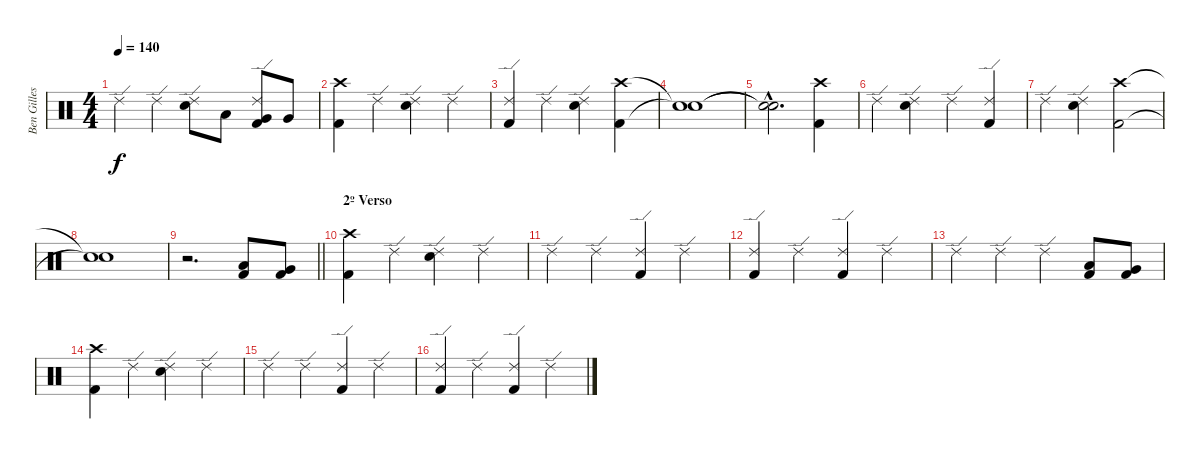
\track ("Ben Gilles" "Ben Gilles") {instrument percussion}
\staff {score}
\articulation defaults
\ts (4 4)
\tempo 140
\clef neutral
\ks c "Ride (edge) 2".4{dy f} "Ride (edge) 2".4
("Ride (edge) 2" "Electric Snare (hit)").8 "Low Tom (hit)".8 ("Ride (edge) 2" "Very Low Tom (hit)" "Kick (hit) 2").8 "Very Low Tom (hit)".8 |
("Crash high (hit)" "Kick (hit) 2").4 "Ride (edge) 2".4 ("Ride (edge) 2" "Electric Snare (hit)").4 "Ride (edge) 2".4 |
("Ride (edge) 2" "Kick (hit) 2").4 "Ride (edge) 2".4 ("Ride (edge) 2" "Electric Snare (hit)").4 ("Crash high (hit)" "Kick (hit) 2").4 |
("Snare (hit)"{t} "Snare (hit)"{t}).1 |
("Snare (hit)"{hac t} "Snare (hit)"{hac t}).2{d} ("Crash high (hit)" "Kick (hit) 2").4 |
"Ride (edge) 2".4 ("Ride (edge) 2" "Electric Snare (hit)").4 "Ride (edge) 2".4 ("Ride (edge) 2" "Kick (hit) 2").4 |
"Ride (edge) 2".4 ("Ride (edge) 2" "Electric Snare (hit)").4 ("Crash high (hit)" "Kick (hit) 2").2 |
("Snare (hit)"{t} "Snare (hit)"{t}).1 |
\barLineRight lightlight
r.2{d} ("Low Tom (hit)" "Kick (hit) 2").8 ("Very Low Tom (hit)" "Kick (hit) 2").8 |
\section ("" "2º Verso")
("Crash high (hit)" "Kick (hit) 2").4 "Ride (edge) 2".4 ("Ride (edge) 2" "Electric Snare (hit)").4 "Ride (edge) 2".4 |
"Ride (edge) 2".4 "Ride (edge) 2".4 ("Ride (edge) 2" "Kick (hit) 2").4 "Ride (edge) 2".4 |
("Ride (edge) 2" "Kick (hit) 2").4 "Ride (edge) 2".4 ("Ride (edge) 2" "Kick (hit) 2").4 "Ride (edge) 2".4 |
"Ride (edge) 2".4 "Ride (edge) 2".4 "Ride (edge) 2".4 ("Low Tom (hit)" "Kick (hit) 2").8 ("Very Low Tom (hit)" "Kick (hit) 2").8 |
("Crash high (hit)" "Kick (hit) 2").4 "Ride (edge) 2".4 ("Ride (edge) 2" "Electric Snare (hit)").4 "Ride (edge) 2".4 |
"Ride (edge) 2".4 "Ride (edge) 2".4 ("Ride (edge) 2" "Kick (hit) 2").4 "Ride (edge) 2".4 |
("Ride (edge) 2" "Kick (hit) 2").4 "Ride (edge) 2".4 ("Ride (edge) 2" "Kick (hit) 2").4 "Ride (edge) 2".4
